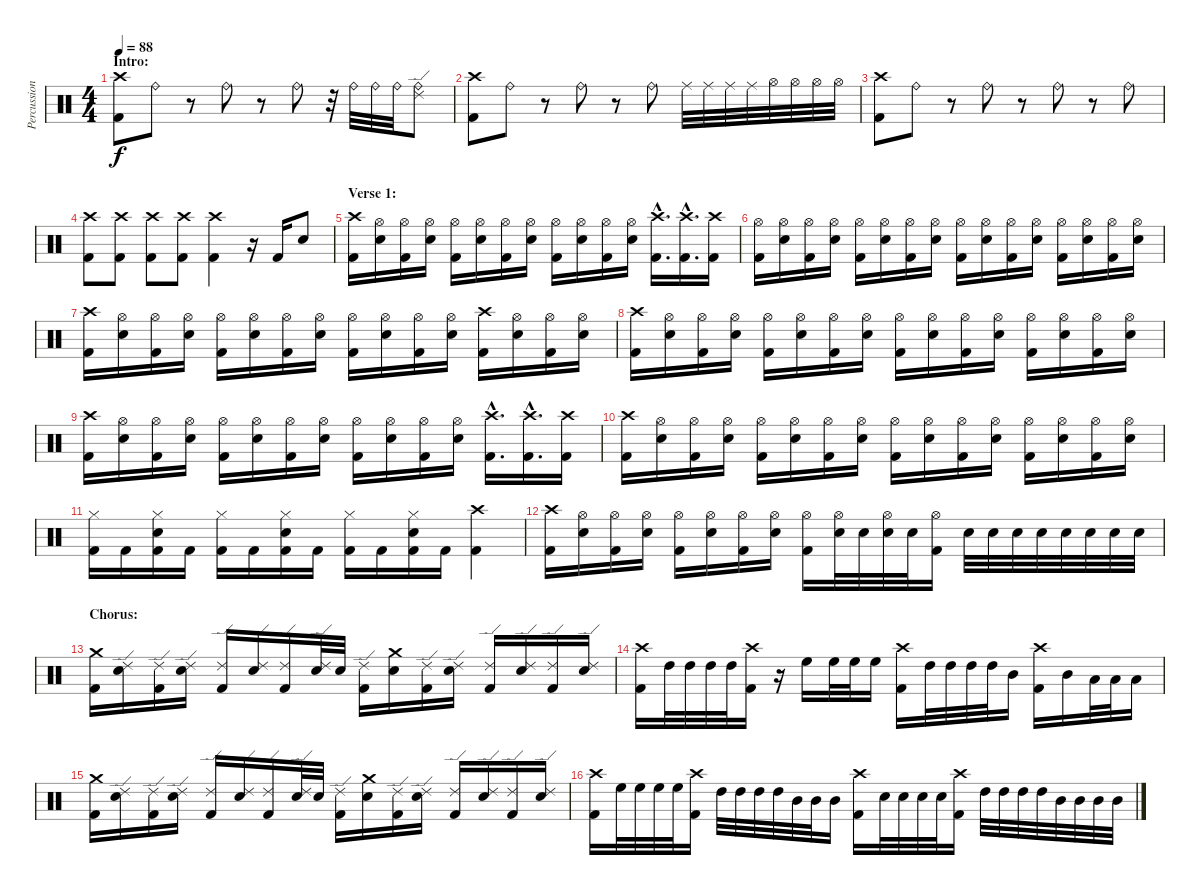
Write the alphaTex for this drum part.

\track ("Percussion" "Percussion") {instrument percussion}
\staff {score}
\articulation defaults
\ts (4 4)
\section ("" "Intro:")
\tempo 88
\clef neutral
\ks c
("Crash high (hit)" "Kick (hit) 2").8{dy f} "Ride (bell)".8 r.8 "Ride (bell)".8 r.8 "Ride (bell)".8 r.32 "Ride (bell)".32 "Ride (bell)".32 "Ride (bell)".32 ("Ride (bell)" "Ride (edge) 2").8 |
("Crash high (hit)" "Kick (hit) 2").8 "Ride (bell)".8 r.8 "Ride (bell)".8 r.8 "Ride (bell)".8 "Ride (middle)".32 "Ride (middle)".32 "Ride (middle)".32 "Ride (middle)".32 "Hi-Hat (open)".32 "Hi-Hat (open)".32 "Hi-Hat (open)".32 "Hi-Hat (open)".32 |
("Crash high (hit)" "Kick (hit) 2").8 "Ride (bell)".8 r.8 "Ride (bell)".8 r.8 "Ride (bell)".8 r.8 "Ride (bell)".8 |
("Crash high (hit)" "Kick (hit) 2").8 ("Crash high (hit)" "Kick (hit) 2").8 ("Crash high (hit)" "Kick (hit) 2").8 ("Crash high (hit)" "Kick (hit) 2").8 ("Crash high (hit)" "Kick (hit) 2").4 r.16 "Kick (hit) 2".16 "Electric Snare (hit)".8 |
\section ("" "Verse 1:")
("Crash high (hit)" "Kick (hit) 2").16 ("Hi-Hat (open)" "Electric Snare (hit)").16 ("Hi-Hat (open)" "Kick (hit) 2").16 ("Hi-Hat (open)" "Electric Snare (hit)").16 ("Hi-Hat (open)" "Kick (hit) 2").16 ("Hi-Hat (open)" "Electric Snare (hit)").16 ("Hi-Hat (open)" "Kick (hit) 2").16 ("Hi-Hat (open)" "Electric Snare (hit)").16 ("Hi-Hat (open)" "Kick (hit) 2").16 ("Hi-Hat (open)" "Electric Snare (hit)").16 ("Hi-Hat (open)" "Kick (hit) 2").16 ("Hi-Hat (open)" "Electric Snare (hit)").16 ("Crash high (hit)"{hac} "Kick (hit) 2"{hac}).16{d} ("Crash high (hit)"{hac} "Kick (hit) 2"{hac}).16{d} ("Crash high (hit)" "Kick (hit) 2").16 |
("Hi-Hat (open)" "Kick (hit) 2").16 ("Hi-Hat (open)" "Electric Snare (hit)").16 ("Hi-Hat (open)" "Kick (hit) 2").16 ("Hi-Hat (open)" "Electric Snare (hit)").16 ("Hi-Hat (open)" "Kick (hit) 2").16 ("Hi-Hat (open)" "Electric Snare (hit)").16 ("Hi-Hat (open)" "Kick (hit) 2").16 ("Hi-Hat (open)" "Electric Snare (hit)").16 ("Hi-Hat (open)" "Kick (hit) 2").16 ("Hi-Hat (open)" "Electric Snare (hit)").16 ("Hi-Hat (open)" "Kick (hit) 2").16 ("Hi-Hat (open)" "Electric Snare (hit)").16 ("Hi-Hat (open)" "Kick (hit) 2").16 ("Hi-Hat (open)" "Electric Snare (hit)").16 ("Hi-Hat (open)" "Kick (hit) 2").16 ("Hi-Hat (open)" "Electric Snare (hit)").16 |
("Crash high (hit)" "Kick (hit) 2").16 ("Hi-Hat (open)" "Electric Snare (hit)").16 ("Hi-Hat (open)" "Kick (hit) 2").16 ("Hi-Hat (open)" "Electric Snare (hit)").16 ("Hi-Hat (open)" "Kick (hit) 2").16 ("Hi-Hat (open)" "Electric Snare (hit)").16 ("Hi-Hat (open)" "Kick (hit) 2").16 ("Hi-Hat (open)" "Electric Snare (hit)").16 ("Hi-Hat (open)" "Kick (hit) 2").16 ("Hi-Hat (open)" "Electric Snare (hit)").16 ("Hi-Hat (open)" "Kick (hit) 2").16 ("Hi-Hat (open)" "Electric Snare (hit)").16 ("Crash high (hit)" "Kick (hit) 2").16 ("Hi-Hat (open)" "Electric Snare (hit)").16 ("Hi-Hat (open)" "Kick (hit) 2").16 ("Hi-Hat (open)" "Electric Snare (hit)").16 |
("Crash high (hit)" "Kick (hit) 2").16 ("Hi-Hat (open)" "Electric Snare (hit)").16 ("Hi-Hat (open)" "Kick (hit) 2").16 ("Hi-Hat (open)" "Electric Snare (hit)").16 ("Hi-Hat (open)" "Kick (hit) 2").16 ("Hi-Hat (open)" "Electric Snare (hit)").16 ("Hi-Hat (open)" "Kick (hit) 2").16 ("Hi-Hat (open)" "Electric Snare (hit)").16 ("Hi-Hat (open)" "Kick (hit) 2").16 ("Hi-Hat (open)" "Electric Snare (hit)").16 ("Hi-Hat (open)" "Kick (hit) 2").16 ("Hi-Hat (open)" "Electric Snare (hit)").16 ("Hi-Hat (open)" "Kick (hit) 2").16 ("Hi-Hat (open)" "Electric Snare (hit)").16 ("Hi-Hat (open)" "Kick (hit) 2").16 ("Hi-Hat (open)" "Electric Snare (hit)").16 |
("Crash high (hit)" "Kick (hit) 2").16 ("Hi-Hat (open)" "Electric Snare (hit)").16 ("Hi-Hat (open)" "Kick (hit) 2").16 ("Hi-Hat (open)" "Electric Snare (hit)").16 ("Hi-Hat (open)" "Kick (hit) 2").16 ("Hi-Hat (open)" "Electric Snare (hit)").16 ("Hi-Hat (open)" "Kick (hit) 2").16 ("Hi-Hat (open)" "Electric Snare (hit)").16 ("Hi-Hat (open)" "Kick (hit) 2").16 ("Hi-Hat (open)" "Electric Snare (hit)").16 ("Hi-Hat (open)" "Kick (hit) 2").16 ("Hi-Hat (open)" "Electric Snare (hit)").16 ("Crash high (hit)"{hac} "Kick (hit) 2"{hac}).16{d} ("Crash high (hit)"{hac} "Kick (hit) 2"{hac}).16{d} ("Crash high (hit)" "Kick (hit) 2").16 |
("Crash high (hit)" "Kick (hit) 2").16 ("Hi-Hat (open)" "Electric Snare (hit)").16 ("Hi-Hat (open)" "Kick (hit) 2").16 ("Hi-Hat (open)" "Electric Snare (hit)").16 ("Hi-Hat (open)" "Kick (hit) 2").16 ("Hi-Hat (open)" "Electric Snare (hit)").16 ("Hi-Hat (open)" "Kick (hit) 2").16 ("Hi-Hat (open)" "Electric Snare (hit)").16 ("Hi-Hat (open)" "Kick (hit) 2").16 ("Hi-Hat (open)" "Electric Snare (hit)").16 ("Hi-Hat (open)" "Kick (hit) 2").16 ("Hi-Hat (open)" "Electric Snare (hit)").16 ("Hi-Hat (open)" "Kick (hit) 2").16 ("Hi-Hat (open)" "Electric Snare (hit)").16 ("Hi-Hat (open)" "Kick (hit) 2").16 ("Hi-Hat (open)" "Electric Snare (hit)").16 |
("Hi-Hat (closed)" "Kick (hit) 2").16 "Kick (hit) 2".16 ("Hi-Hat (closed)" "Electric Snare (hit)" "Kick (hit) 2").16 "Kick (hit) 2".16 ("Hi-Hat (closed)" "Kick (hit) 2").16 "Kick (hit) 2".16 ("Hi-Hat (closed)" "Electric Snare (hit)" "Kick (hit) 2").16 "Kick (hit) 2".16 ("Hi-Hat (closed)" "Kick (hit) 2").16 "Kick (hit) 2".16 ("Hi-Hat (closed)" "Electric Snare (hit)" "Kick (hit) 2").16 "Kick (hit) 2".16 ("Crash high (hit)" "Kick (hit) 2").4 |
("Crash high (hit)" "Kick (hit) 2").16 ("Hi-Hat (open)" "Electric Snare (hit)").16 ("Hi-Hat (open)" "Kick (hit) 2").16 ("Hi-Hat (open)" "Electric Snare (hit)").16 ("Hi-Hat (open)" "Kick (hit) 2").16 ("Hi-Hat (open)" "Electric Snare (hit)").16 ("Hi-Hat (open)" "Kick (hit) 2").16 ("Hi-Hat (open)" "Electric Snare (hit)").16 ("Hi-Hat (open)" "Kick (hit) 2").16 ("Hi-Hat (open)" "Electric Snare (hit)").32 "Electric Snare (hit)".32 ("Hi-Hat (open)" "Electric Snare (hit)").32 "Electric Snare (hit)".32 ("Hi-Hat (open)" "Kick (hit) 2").16 "Electric Snare (hit)".32 "Electric Snare (hit)".32 "Electric Snare (hit)".32 "Electric Snare (hit)".32 "Electric Snare (hit)".32 "Electric Snare (hit)".32 "Electric Snare (hit)".32 "Electric Snare (hit)".32 |
\section ("" "Chorus:")
("Crash medium (hit)" "Kick (hit) 2").16 ("Ride (edge) 2" "Electric Snare (hit)").16 ("Ride (edge) 2" "Kick (hit) 2").16 ("Ride (edge) 2" "Electric Snare (hit)").16 ("Ride (edge) 2" "Kick (hit) 2").16 ("Ride (edge) 2" "Electric Snare (hit)").16 ("Ride (edge) 2" "Kick (hit) 2").16 ("Ride (edge) 2" "Electric Snare (hit)").32 "Electric Snare (hit)".32 ("Ride (edge) 2" "Kick (hit) 2").16 ("Crash medium (hit)" "Electric Snare (hit)").16 ("Ride (edge) 2" "Kick (hit) 2").16 ("Ride (edge) 2" "Electric Snare (hit)").16 ("Ride (edge) 2" "Kick (hit) 2").16 ("Ride (edge) 2" "Electric Snare (hit)").16 ("Ride (edge) 2" "Kick (hit) 2").16 ("Ride (edge) 2" "Electric Snare (hit)").16 |
("Crash high (hit)" "Kick (hit) 2").16 "High Tom (hit)".32 "High Tom (hit)".32 "High Tom (hit)".32 "High Tom (hit)".32 ("Crash high (hit)" "Kick (hit) 2").16 r.16 "High Floor Tom (hit)".16 "High Floor Tom (hit)".32 "High Floor Tom (hit)".32 "High Floor Tom (hit)".16 ("Crash high (hit)" "Kick (hit) 2").16 "High Tom (hit)".32 "High Tom (hit)".32 "High Tom (hit)".32 "High Tom (hit)".32 "Mid Tom (hit)".16 ("Crash high (hit)" "Kick (hit) 2").16 "Mid Tom (hit)".16 "Low Tom (hit)".32 "Low Tom (hit)".32 "Low Tom (hit)".16 |
("Crash medium (hit)" "Kick (hit) 2").16 ("Ride (edge) 2" "Electric Snare (hit)").16 ("Ride (edge) 2" "Kick (hit) 2").16 ("Ride (edge) 2" "Electric Snare (hit)").16 ("Ride (edge) 2" "Kick (hit) 2").16 ("Ride (edge) 2" "Electric Snare (hit)").16 ("Ride (edge) 2" "Kick (hit) 2").16 ("Ride (edge) 2" "Electric Snare (hit)").32 "Electric Snare (hit)".32 ("Ride (edge) 2" "Kick (hit) 2").16 ("Crash medium (hit)" "Electric Snare (hit)").16 ("Ride (edge) 2" "Kick (hit) 2").16 ("Ride (edge) 2" "Electric Snare (hit)").16 ("Ride (edge) 2" "Kick (hit) 2").16 ("Ride (edge) 2" "Electric Snare (hit)").16 ("Ride (edge) 2" "Kick (hit) 2").16 ("Ride (edge) 2" "Electric Snare (hit)").16 |
("Crash high (hit)" "Kick (hit) 2").16 "High Floor Tom (hit)".32 "High Floor Tom (hit)".32 "High Floor Tom (hit)".32 "High Floor Tom (hit)".32 ("Crash high (hit)" "Kick (hit) 2").16 "High Tom (hit)".32 "High Tom (hit)".32 "High Tom (hit)".32 "High Tom (hit)".32 "Mid Tom (hit)".32 "Mid Tom (hit)".32 "Mid Tom (hit)".16 ("Crash high (hit)" "Kick (hit) 2").16 "Electric Snare (hit)".32 "Electric Snare (hit)".32 "Electric Snare (hit)".32 "Electric Snare (hit)".32 ("Crash high (hit)" "Kick (hit) 2").16 "High Tom (hit)".32 "High Tom (hit)".32 "High Tom (hit)".32 "High Tom (hit)".32 "Mid Tom (hit)".32 "Mid Tom (hit)".32 "Mid Tom (hit)".32 "Mid Tom (hit)".32
